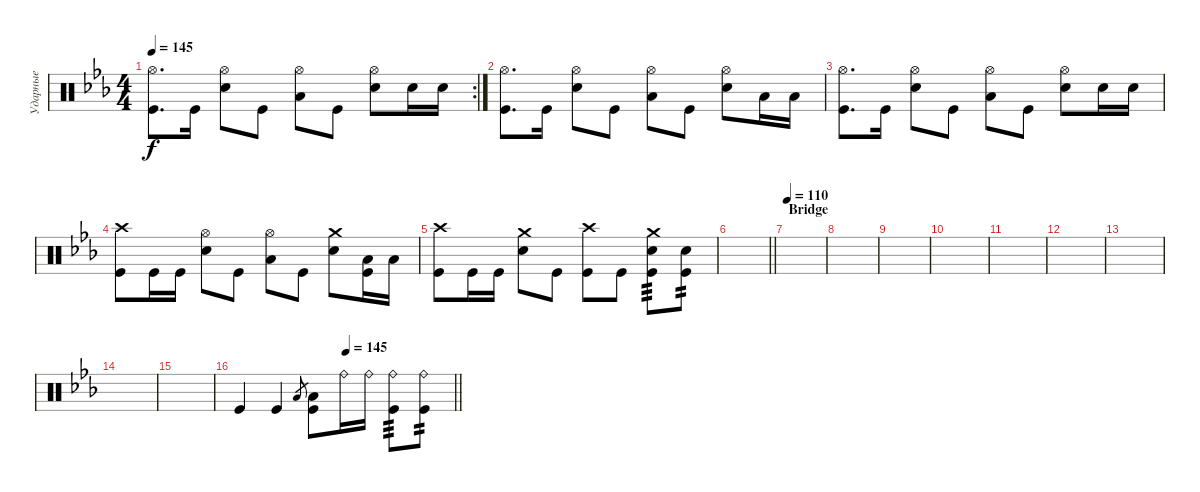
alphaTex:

\track ("Ударные" "Ударные") {instrument percussion}
\staff {score}
\articulation defaults
\rc 2
\ts (4 4)
\tempo 145
\clef neutral
\ks cminor
("Hi-Hat (open)" "Kick (hit)").8{d dy f} "Kick (hit)".16 ("Hi-Hat (open)" "Snare (hit) 2").8 "Kick (hit)".8 ("Hi-Hat (open)" "Low Floor Tom (hit)").8 "Kick (hit)".8 ("Hi-Hat (open)" "Snare (hit) 2").8 "Snare (hit) 2".16 "Snare (hit) 2".16 |
("Hi-Hat (open)" "Kick (hit)").8{d} "Kick (hit)".16 ("Hi-Hat (open)" "Snare (hit) 2").8 "Kick (hit)".8 ("Hi-Hat (open)" "Low Floor Tom (hit)").8 "Kick (hit)".8 ("Hi-Hat (open)" "Snare (hit) 2").8 "Low Floor Tom (hit)".16 "Low Floor Tom (hit)".16 |
("Hi-Hat (open)" "Kick (hit)").8{d} "Kick (hit)".16 ("Hi-Hat (open)" "Snare (hit) 2").8 "Kick (hit)".8 ("Hi-Hat (open)" "Low Floor Tom (hit)").8 "Kick (hit)".8 ("Hi-Hat (open)" "Snare (hit) 2").8 "Snare (hit) 2".16 "Snare (hit) 2".16 |
("Crash high (hit)" "Kick (hit)").8 "Kick (hit)".16 "Kick (hit)".16 ("Hi-Hat (open)" "Snare (hit) 2").8 "Kick (hit)".8 ("Hi-Hat (open)" "Low Floor Tom (hit)").8 "Kick (hit)".8 ("Crash medium (hit)" "Snare (hit) 2").8 ("Low Floor Tom (hit)" "Kick (hit)").16 "Low Floor Tom (hit)".16 |
("Crash high (hit)" "Kick (hit)").8 "Kick (hit)".16 "Kick (hit)".16 ("Crash medium (hit)" "Snare (hit) 2").8 "Kick (hit)".8 ("Crash high (hit)" "Kick (hit)").8 "Kick (hit)".8 ("Crash medium (hit)" "Snare (hit) 2" "Kick (hit)").8{tp 3} ("Snare (hit) 2" "Kick (hit)").8{tp 2} |
\barLineRight lightlight
|
\section ("" "Bridge")
\tempo 110
|
|
|
|
|
|
|
|
|
\tempo (145 0.5)
\barLineRight lightlight "Kick (hit)".4 "Kick (hit)".4 "Low Tom (hit)".8{gr}
("Low Floor Tom (hit)" "Kick (hit)").8 "Ride (bell)".16 "Ride (bell)".16 ("Ride (bell)" "Kick (hit)").8{tp 3} ("Ride (bell)" "Kick (hit)").8{tp 2}
